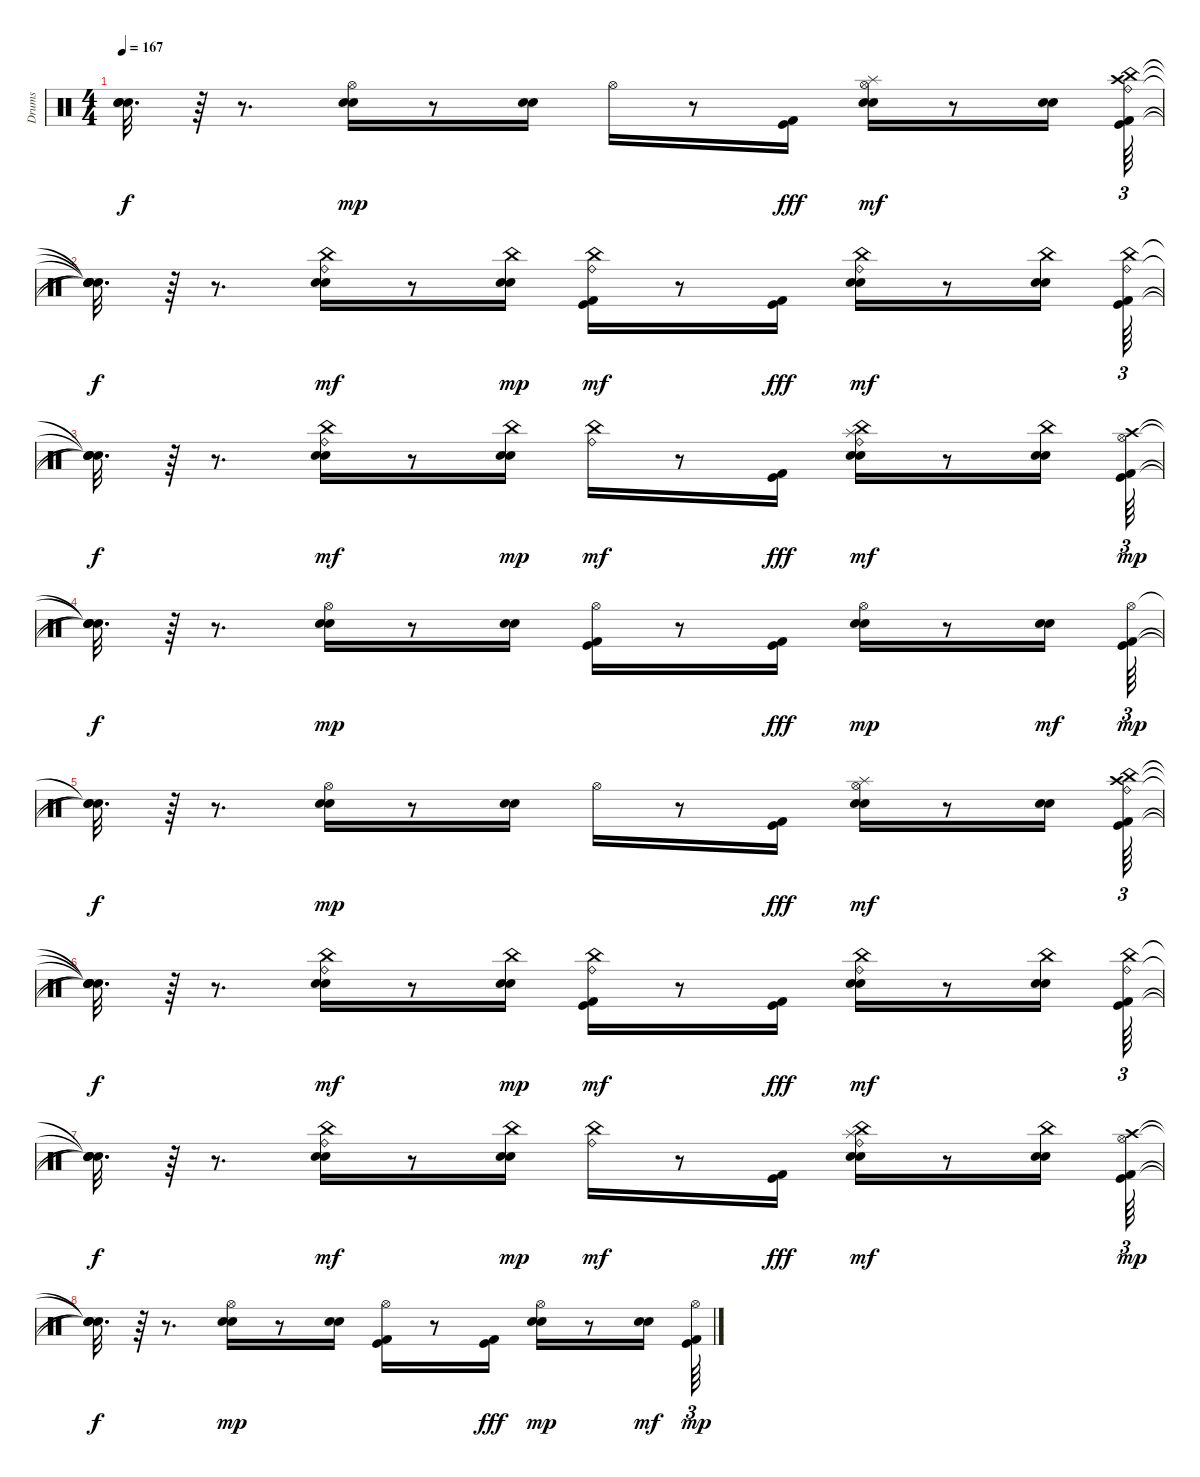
\track ("Drums" "Drums") {instrument percussion}
\staff {score}
\articulation defaults
\ts (4 4)
\tempo 167
\clef neutral
\ks c
("Snare (hit)"{t} "Snare (hit)"{t} "Snare (hit)"{t}).32{d dy f} r.64 r.8{d} ("Snare (hit) 2" "Hand Clap (hit)" "Hi-Hat (open)").16{dy mp} r.8 ("Snare (hit) 2" "Hand Clap (hit)").16 "Hi-Hat (open)".16 r.8 ("Kick (hit) 2" "Kick (hit)").16{dy fff} ("Snare (hit) 2" "Hand Clap (hit)" "Hi-Hat (open)" "Splash (hit)").16{dy mf} r.8 ("Snare (hit) 2" "Hand Clap (hit)").16 ("Kick (hit) 2" "Kick (hit)" "China (hit)" "Ride (bell)" "Crash high (hit)").64{tu (3 2)} |
("Snare (hit)"{t} "Snare (hit)"{t} "Snare (hit)"{t} "Snare (hit)"{t} "Snare (hit)"{t}).32{d dy f} r.64 r.8{d} ("Snare (hit) 2" "Hand Clap (hit)" "China (hit)" "Ride (bell)").16{dy mf} r.8 ("Snare (hit) 2" "Hand Clap (hit)" "China (hit)").16{dy mp} ("Kick (hit) 2" "Kick (hit)" "China (hit)" "Ride (bell)").16{dy mf} r.8 ("Kick (hit) 2" "Kick (hit)").16{dy fff} ("Snare (hit) 2" "Hand Clap (hit)" "China (hit)" "Ride (bell)").16{dy mf} r.8 ("Snare (hit) 2" "China (hit)" "Hand Clap (hit)").16 ("Kick (hit) 2" "Kick (hit)" "China (hit)" "Ride (bell)").64{tu (3 2)} |
("Snare (hit)"{t} "Snare (hit)"{t} "Snare (hit)"{t} "Snare (hit)"{t}).32{d dy f} r.64 r.8{d} ("Snare (hit) 2" "Hand Clap (hit)" "China (hit)" "Ride (bell)").16{dy mf} r.8 ("Snare (hit) 2" "Hand Clap (hit)" "China (hit)").16{dy mp} ("China (hit)" "Ride (bell)").16{dy mf} r.8 ("Kick (hit) 2" "Kick (hit)").16{dy fff} ("Snare (hit) 2" "Hand Clap (hit)" "China (hit)" "Ride (bell)" "Splash (hit)").16{dy mf} r.8 ("Snare (hit) 2" "China (hit)" "Hand Clap (hit)").16 ("Kick (hit) 2" "Kick (hit)" "Crash high (hit)" "Hi-Hat (open)").64{tu (3 2) dy mp} |
("Snare (hit)"{t} "Snare (hit)"{t} "Snare (hit)"{t} "Snare (hit)"{t}).32{d dy f} r.64 r.8{d} ("Snare (hit) 2" "Hand Clap (hit)" "Hi-Hat (open)").16{dy mp} r.8 ("Snare (hit) 2" "Hand Clap (hit)").16 ("Kick (hit) 2" "Kick (hit)" "Hi-Hat (open)").16 r.8 ("Kick (hit) 2" "Kick (hit)").16{dy fff} ("Snare (hit) 2" "Hand Clap (hit)" "Hi-Hat (open)").16{dy mp} r.8 ("Snare (hit) 2" "Hand Clap (hit)").16{dy mf} ("Kick (hit) 2" "Kick (hit)" "Hi-Hat (open)").64{tu (3 2) dy mp} |
("Snare (hit)"{t} "Snare (hit)"{t} "Snare (hit)"{t}).32{d dy f} r.64 r.8{d} ("Snare (hit) 2" "Hand Clap (hit)" "Hi-Hat (open)").16{dy mp} r.8 ("Snare (hit) 2" "Hand Clap (hit)").16 "Hi-Hat (open)".16 r.8 ("Kick (hit) 2" "Kick (hit)").16{dy fff} ("Snare (hit) 2" "Hand Clap (hit)" "Hi-Hat (open)" "Splash (hit)").16{dy mf} r.8 ("Snare (hit) 2" "Hand Clap (hit)").16 ("Kick (hit) 2" "Kick (hit)" "China (hit)" "Ride (bell)" "Crash high (hit)").64{tu (3 2)} |
("Snare (hit)"{t} "Snare (hit)"{t} "Snare (hit)"{t} "Snare (hit)"{t} "Snare (hit)"{t}).32{d dy f} r.64 r.8{d} ("Snare (hit) 2" "Hand Clap (hit)" "China (hit)" "Ride (bell)").16{dy mf} r.8 ("Snare (hit) 2" "Hand Clap (hit)" "China (hit)").16{dy mp} ("Kick (hit) 2" "Kick (hit)" "China (hit)" "Ride (bell)").16{dy mf} r.8 ("Kick (hit) 2" "Kick (hit)").16{dy fff} ("Snare (hit) 2" "Hand Clap (hit)" "China (hit)" "Ride (bell)").16{dy mf} r.8 ("Snare (hit) 2" "China (hit)" "Hand Clap (hit)").16 ("Kick (hit) 2" "Kick (hit)" "China (hit)" "Ride (bell)").64{tu (3 2)} |
("Snare (hit)"{t} "Snare (hit)"{t} "Snare (hit)"{t} "Snare (hit)"{t}).32{d dy f} r.64 r.8{d} ("Snare (hit) 2" "Hand Clap (hit)" "China (hit)" "Ride (bell)").16{dy mf} r.8 ("Snare (hit) 2" "Hand Clap (hit)" "China (hit)").16{dy mp} ("China (hit)" "Ride (bell)").16{dy mf} r.8 ("Kick (hit) 2" "Kick (hit)").16{dy fff} ("Snare (hit) 2" "Hand Clap (hit)" "China (hit)" "Ride (bell)" "Splash (hit)").16{dy mf} r.8 ("Snare (hit) 2" "China (hit)" "Hand Clap (hit)").16 ("Kick (hit) 2" "Kick (hit)" "Crash high (hit)" "Hi-Hat (open)").64{tu (3 2) dy mp} |
("Snare (hit)"{t} "Snare (hit)"{t} "Snare (hit)"{t} "Snare (hit)"{t}).32{d dy f} r.64 r.8{d} ("Snare (hit) 2" "Hand Clap (hit)" "Hi-Hat (open)").16{dy mp} r.8 ("Snare (hit) 2" "Hand Clap (hit)").16 ("Kick (hit) 2" "Kick (hit)" "Hi-Hat (open)").16 r.8 ("Kick (hit) 2" "Kick (hit)").16{dy fff} ("Snare (hit) 2" "Hand Clap (hit)" "Hi-Hat (open)").16{dy mp} r.8 ("Snare (hit) 2" "Hand Clap (hit)").16{dy mf} ("Kick (hit) 2" "Kick (hit)" "Hi-Hat (open)").64{tu (3 2) dy mp}
